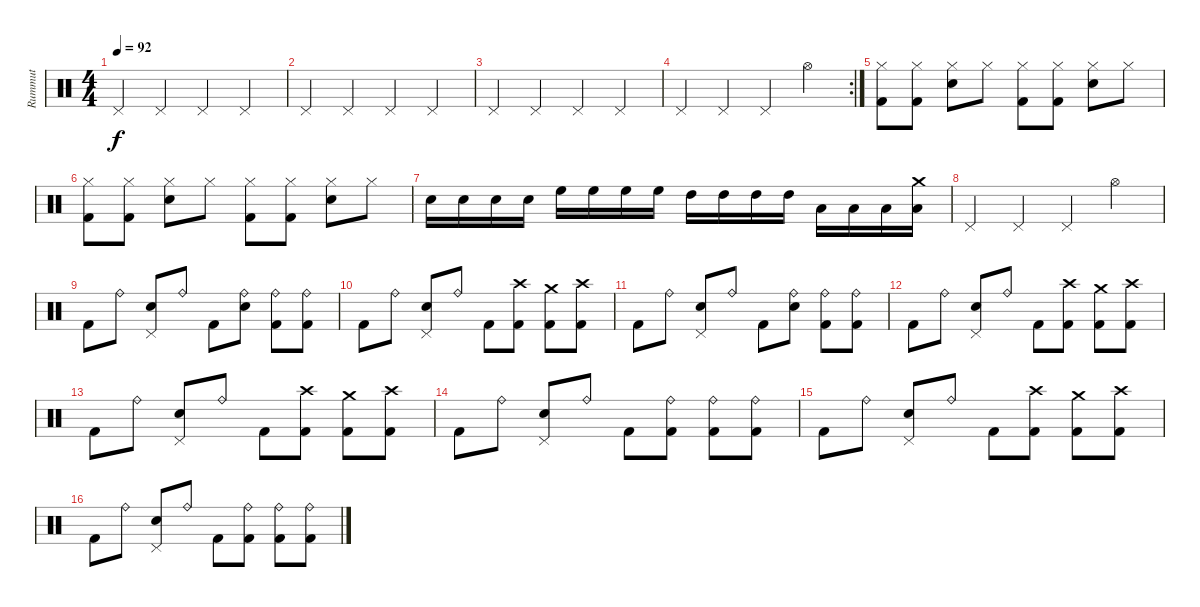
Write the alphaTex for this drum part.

\track ("Rummut" "Rummut") {instrument percussion}
\staff {score}
\articulation defaults
\ts (4 4)
\tempo 92
\clef neutral
\ks c "Pedal Hi-Hat (hit)".4{dy f} "Pedal Hi-Hat (hit)".4 "Pedal Hi-Hat (hit)".4 "Pedal Hi-Hat (hit)".4
|
"Pedal Hi-Hat (hit)".4 "Pedal Hi-Hat (hit)".4 "Pedal Hi-Hat (hit)".4 "Pedal Hi-Hat (hit)".4 |
"Pedal Hi-Hat (hit)".4 "Pedal Hi-Hat (hit)".4 "Pedal Hi-Hat (hit)".4 "Pedal Hi-Hat (hit)".4 |
\rc 2 "Pedal Hi-Hat (hit)".4 "Pedal Hi-Hat (hit)".4 "Pedal Hi-Hat (hit)".4 "Hi-Hat (open)".4
|
("Hi-Hat (closed)" "Kick (hit) 2").8 ("Hi-Hat (closed)" "Kick (hit) 2").8 ("Hi-Hat (closed)" "Snare (hit) 2").8 "Hi-Hat (closed)".8 ("Hi-Hat (closed)" "Kick (hit) 2").8 ("Hi-Hat (closed)" "Kick (hit) 2").8 ("Hi-Hat (closed)" "Snare (hit) 2").8 "Hi-Hat (closed)".8 |
("Hi-Hat (closed)" "Kick (hit) 2").8 ("Hi-Hat (closed)" "Kick (hit) 2").8 ("Hi-Hat (closed)" "Snare (hit) 2").8 "Hi-Hat (closed)".8 ("Hi-Hat (closed)" "Kick (hit) 2").8 ("Hi-Hat (closed)" "Kick (hit) 2").8 ("Hi-Hat (closed)" "Snare (hit) 2").8 "Hi-Hat (closed)".8 |
"Snare (hit) 2".16 "Snare (hit) 2".16 "Snare (hit) 2".16 "Snare (hit) 2".16 "High Floor Tom (hit)".16 "High Floor Tom (hit)".16 "High Floor Tom (hit)".16 "High Floor Tom (hit)".16 "High Tom (hit)".16 "High Tom (hit)".16 "High Tom (hit)".16 "High Tom (hit)".16 "Low Tom (hit)".16 "Low Tom (hit)".16 "Low Tom (hit)".16 ("Crash medium (hit)" "Low Tom (hit)").16 |
"Pedal Hi-Hat (hit)".4 "Pedal Hi-Hat (hit)".4 "Pedal Hi-Hat (hit)".4 "Hi-Hat (open)".4 |
"Kick (hit) 2".8 "Ride (bell)".8 ("Pedal Hi-Hat (hit)" "Snare (hit) 2").8 "Ride (bell)".8 "Kick (hit) 2".8 ("Ride (bell)" "Snare (hit) 2").8 ("Ride (bell)" "Kick (hit) 2").8 ("Ride (bell)" "Kick (hit) 2").8 |
"Kick (hit) 2".8 "Ride (bell)".8 ("Pedal Hi-Hat (hit)" "Snare (hit) 2").8 "Ride (bell)".8 "Kick (hit) 2".8 ("Crash high (hit)" "Kick (hit) 2").8 ("Crash medium (hit)" "Kick (hit) 2").8 ("Crash high (hit)" "Kick (hit) 2").8 |
"Kick (hit) 2".8 "Ride (bell)".8 ("Pedal Hi-Hat (hit)" "Snare (hit) 2").8 "Ride (bell)".8 "Kick (hit) 2".8 ("Ride (bell)" "Snare (hit) 2").8 ("Ride (bell)" "Kick (hit) 2").8 ("Ride (bell)" "Kick (hit) 2").8 |
"Kick (hit) 2".8 "Ride (bell)".8 ("Pedal Hi-Hat (hit)" "Snare (hit) 2").8 "Ride (bell)".8 "Kick (hit) 2".8 ("Crash high (hit)" "Kick (hit) 2").8 ("Crash medium (hit)" "Kick (hit) 2").8 ("Crash high (hit)" "Kick (hit) 2").8 |
"Kick (hit) 2".8 "Ride (bell)".8 ("Pedal Hi-Hat (hit)" "Snare (hit) 2").8 "Ride (bell)".8 "Kick (hit) 2".8 ("Crash high (hit)" "Kick (hit) 2").8 ("Crash medium (hit)" "Kick (hit) 2").8 ("Crash high (hit)" "Kick (hit) 2").8 |
"Kick (hit) 2".8 "Ride (bell)".8 ("Pedal Hi-Hat (hit)" "Snare (hit) 2").8 "Ride (bell)".8 "Kick (hit) 2".8 ("Ride (bell)" "Kick (hit) 2").8 ("Ride (bell)" "Kick (hit) 2").8 ("Ride (bell)" "Kick (hit) 2").8 |
"Kick (hit) 2".8 "Ride (bell)".8 ("Pedal Hi-Hat (hit)" "Snare (hit) 2").8 "Ride (bell)".8 "Kick (hit) 2".8 ("Crash high (hit)" "Kick (hit) 2").8 ("Crash medium (hit)" "Kick (hit) 2").8 ("Crash high (hit)" "Kick (hit) 2").8 |
"Kick (hit) 2".8 "Ride (bell)".8 ("Pedal Hi-Hat (hit)" "Snare (hit) 2").8 "Ride (bell)".8 "Kick (hit) 2".8 ("Ride (bell)" "Kick (hit) 2").8 ("Ride (bell)" "Kick (hit) 2").8 ("Ride (bell)" "Kick (hit) 2").8
